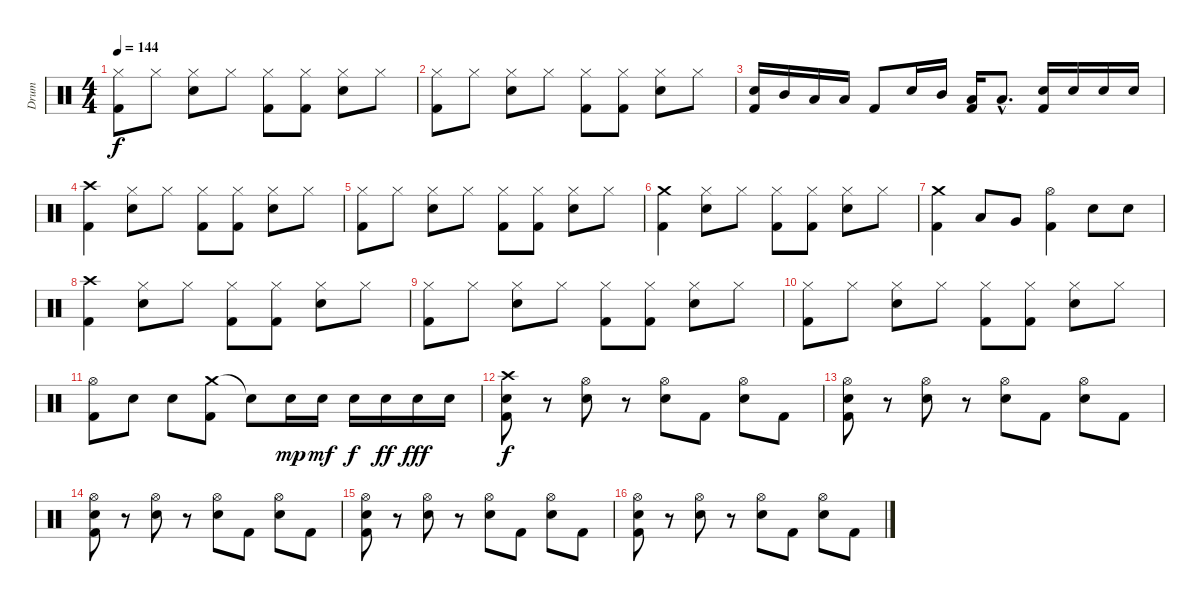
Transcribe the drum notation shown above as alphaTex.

\track ("Drum" "Drum") {instrument percussion}
\staff {score}
\articulation defaults
\ts (4 4)
\tempo 144
\clef neutral
\ks c
("Hi-Hat (closed)" "Kick (hit) 2").8{dy f} "Hi-Hat (closed)".8 ("Hi-Hat (closed)" "Electric Snare (hit)").8 "Hi-Hat (closed)".8 ("Hi-Hat (closed)" "Kick (hit) 2").8 ("Hi-Hat (closed)" "Kick (hit) 2").8 ("Hi-Hat (closed)" "Electric Snare (hit)").8 "Hi-Hat (closed)".8 |
("Hi-Hat (closed)" "Kick (hit) 2").8 "Hi-Hat (closed)".8 ("Hi-Hat (closed)" "Electric Snare (hit)").8 "Hi-Hat (closed)".8 ("Hi-Hat (closed)" "Kick (hit) 2").8 ("Hi-Hat (closed)" "Kick (hit) 2").8 ("Hi-Hat (closed)" "Electric Snare (hit)").8 "Hi-Hat (closed)".8 |
("Electric Snare (hit)" "Kick (hit) 2").16 "Mid Tom (hit)".16 "Low Tom (hit)".16 "Low Floor Tom (hit)".16 "Kick (hit) 2".8 "Electric Snare (hit)".16 "Mid Tom (hit)".16 ("Low Tom (hit)" "Kick (hit) 2").16 "Low Floor Tom (hit)"{hac}.8{d} ("Electric Snare (hit)" "Kick (hit) 2").16 "Electric Snare (hit)".16 "Electric Snare (hit)".16 "Electric Snare (hit)".16 |
("Crash high (hit)" "Kick (hit) 2").4 ("Hi-Hat (closed)" "Electric Snare (hit)").8 "Hi-Hat (closed)".8 ("Hi-Hat (closed)" "Kick (hit) 2").8 ("Hi-Hat (closed)" "Kick (hit) 2").8 ("Hi-Hat (closed)" "Electric Snare (hit)").8 "Hi-Hat (closed)".8 |
("Hi-Hat (closed)" "Kick (hit) 2").8 "Hi-Hat (closed)".8 ("Hi-Hat (closed)" "Electric Snare (hit)").8 "Hi-Hat (closed)".8 ("Hi-Hat (closed)" "Kick (hit) 2").8 ("Hi-Hat (closed)" "Kick (hit) 2").8 ("Hi-Hat (closed)" "Electric Snare (hit)").8 "Hi-Hat (closed)".8 |
("Crash medium (hit)" "Kick (hit) 2").4 ("Hi-Hat (closed)" "Electric Snare (hit)").8 "Hi-Hat (closed)".8 ("Hi-Hat (closed)" "Kick (hit) 2").8 ("Hi-Hat (closed)" "Kick (hit) 2").8 ("Hi-Hat (closed)" "Electric Snare (hit)").8 "Hi-Hat (closed)".8 |
("Crash medium (hit)" "Kick (hit) 2").4 "Low Tom (hit)".8 "Very Low Tom (hit)".8 ("Hi-Hat (open)" "Kick (hit) 2").4 "Electric Snare (hit)".8 "Electric Snare (hit)".8 |
("Crash high (hit)" "Kick (hit) 2").4 ("Hi-Hat (closed)" "Electric Snare (hit)").8 "Hi-Hat (closed)".8 ("Hi-Hat (closed)" "Kick (hit) 2").8 ("Hi-Hat (closed)" "Kick (hit) 2").8 ("Hi-Hat (closed)" "Electric Snare (hit)").8 "Hi-Hat (closed)".8 |
("Hi-Hat (closed)" "Kick (hit) 2").8 "Hi-Hat (closed)".8 ("Hi-Hat (closed)" "Electric Snare (hit)").8 "Hi-Hat (closed)".8 ("Hi-Hat (closed)" "Kick (hit) 2").8 ("Hi-Hat (closed)" "Kick (hit) 2").8 ("Hi-Hat (closed)" "Electric Snare (hit)").8 "Hi-Hat (closed)".8 |
("Hi-Hat (closed)" "Kick (hit) 2").8 "Hi-Hat (closed)".8 ("Hi-Hat (closed)" "Electric Snare (hit)").8 "Hi-Hat (closed)".8 ("Hi-Hat (closed)" "Kick (hit) 2").8 ("Hi-Hat (closed)" "Kick (hit) 2").8 ("Hi-Hat (closed)" "Electric Snare (hit)").8 "Hi-Hat (closed)".8 |
("Hi-Hat (open)" "Kick (hit) 2").8 "Electric Snare (hit)".8 "Electric Snare (hit)".8 ("Crash medium (hit)" "Kick (hit) 2").8 "Snare (hit)"{t}.8 "Electric Snare (hit)".16{dy mp} "Electric Snare (hit)".16{dy mf} "Electric Snare (hit)".16{dy f} "Electric Snare (hit)".16{dy ff} "Electric Snare (hit)".16{dy fff} "Electric Snare (hit)".16 |
("Crash high (hit)" "Electric Snare (hit)" "Kick (hit) 2").8{dy f} r.8 ("Hi-Hat (open)" "Electric Snare (hit)").8 r.8 ("Hi-Hat (open)" "Electric Snare (hit)").8 "Kick (hit) 2".8 ("Hi-Hat (open)" "Electric Snare (hit)").8 "Kick (hit) 2".8 |
("Hi-Hat (open)" "Electric Snare (hit)" "Kick (hit) 2").8 r.8 ("Hi-Hat (open)" "Electric Snare (hit)").8 r.8 ("Hi-Hat (open)" "Electric Snare (hit)").8 "Kick (hit) 2".8 ("Hi-Hat (open)" "Electric Snare (hit)").8 "Kick (hit) 2".8 |
("Hi-Hat (open)" "Electric Snare (hit)" "Kick (hit) 2").8 r.8 ("Hi-Hat (open)" "Electric Snare (hit)").8 r.8 ("Hi-Hat (open)" "Electric Snare (hit)").8 "Kick (hit) 2".8 ("Hi-Hat (open)" "Electric Snare (hit)").8 "Kick (hit) 2".8 |
("Hi-Hat (open)" "Electric Snare (hit)" "Kick (hit) 2").8 r.8 ("Hi-Hat (open)" "Electric Snare (hit)").8 r.8 ("Hi-Hat (open)" "Electric Snare (hit)").8 "Kick (hit) 2".8 ("Hi-Hat (open)" "Electric Snare (hit)").8 "Kick (hit) 2".8 |
("Hi-Hat (open)" "Electric Snare (hit)" "Kick (hit) 2").8 r.8 ("Hi-Hat (open)" "Electric Snare (hit)").8 r.8 ("Hi-Hat (open)" "Electric Snare (hit)").8 "Kick (hit) 2".8 ("Hi-Hat (open)" "Electric Snare (hit)").8 "Kick (hit) 2".8
